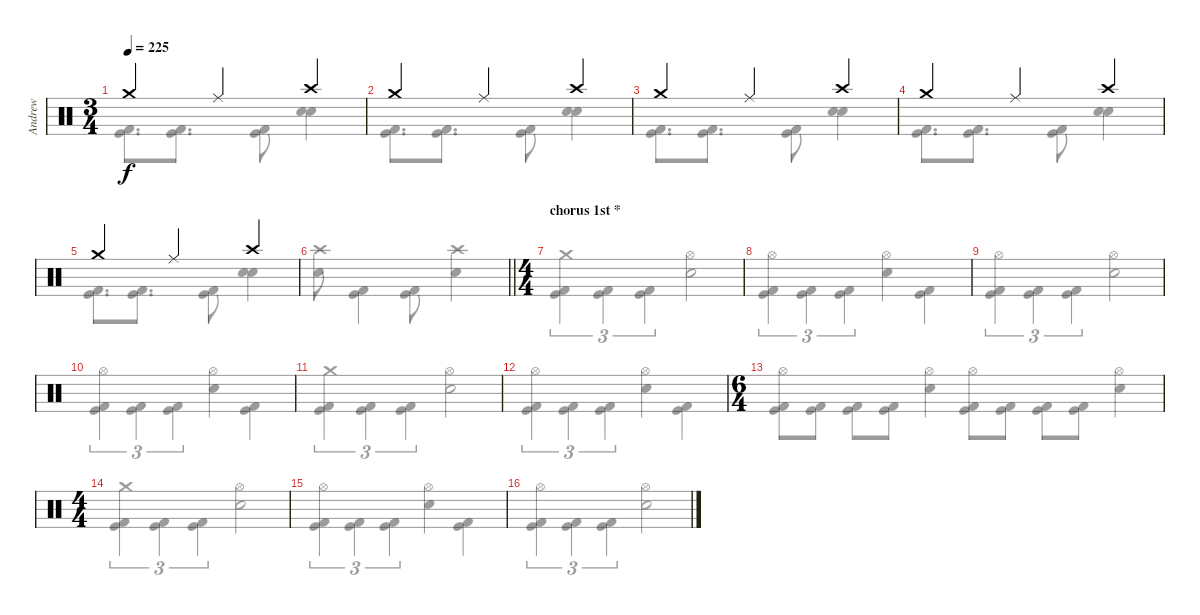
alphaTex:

\track ("Andrew" "Andrew") {instrument percussion}
\staff {score}
\articulation defaults
\voice
\ts (3 4)
\tempo 225
\clef neutral
\ks c "Crash medium (hit)".4{dy f} "Ride (middle)".4 "Crash high (hit)".4
|
"Crash medium (hit)".4 "Ride (middle)".4 "Crash high (hit)".4 |
"Crash medium (hit)".4 "Ride (middle)".4 "Crash high (hit)".4 |
"Crash medium (hit)".4 "Ride (middle)".4 "Crash high (hit)".4 |
"Crash medium (hit)".4 "Ride (middle)".4 "Crash high (hit)".4 |
\barLineRight lightlight
|
\ts (4 4)
\section ("" "chorus 1st *")
|
|
|
|
|
|
\ts (6 4)
|
\ts (4 4)
|
|
\voice
\clef neutral
\ottava regular
\simile none
\ks c
("Kick (hit)" "Kick (hit) 2").8{d dy f} ("Kick (hit)" "Kick (hit) 2").8{d} ("Kick (hit)" "Kick (hit) 2").8 ("Snare (hit) 2" "Snare (hit) 2").4 |
("Kick (hit)" "Kick (hit) 2").8{d} ("Kick (hit)" "Kick (hit) 2").8{d} ("Kick (hit)" "Kick (hit) 2").8 ("Snare (hit) 2" "Snare (hit) 2").4 |
("Kick (hit)" "Kick (hit) 2").8{d} ("Kick (hit)" "Kick (hit) 2").8{d} ("Kick (hit)" "Kick (hit) 2").8 ("Snare (hit) 2" "Snare (hit) 2").4 |
("Kick (hit)" "Kick (hit) 2").8{d} ("Kick (hit)" "Kick (hit) 2").8{d} ("Kick (hit)" "Kick (hit) 2").8 ("Snare (hit) 2" "Snare (hit) 2").4 |
("Kick (hit)" "Kick (hit) 2").8{d} ("Kick (hit)" "Kick (hit) 2").8{d} ("Kick (hit)" "Kick (hit) 2").8 ("Snare (hit) 2" "Snare (hit) 2").4 |
\barLineRight lightlight
("Crash high (hit)" "Snare (hit) 2").8 ("Kick (hit)" "Kick (hit) 2").4 ("Kick (hit)" "Kick (hit) 2").8 ("Crash high (hit)" "Snare (hit) 2").4 |
("Crash medium (hit)" "Kick (hit)" "Kick (hit) 2").4{tu (3 2)} ("Kick (hit)" "Kick (hit) 2").4{tu (3 2)} ("Kick (hit)" "Kick (hit) 2").4{tu (3 2)} ("Hi-Hat (open)" "Electric Snare (hit)").2 |
("Hi-Hat (open)" "Kick (hit)" "Kick (hit) 2").4{tu (3 2)} ("Kick (hit)" "Kick (hit) 2").4{tu (3 2)} ("Kick (hit)" "Kick (hit) 2").4{tu (3 2)} ("Hi-Hat (open)" "Electric Snare (hit)").4 ("Kick (hit)" "Kick (hit) 2").4 |
("Hi-Hat (open)" "Kick (hit)" "Kick (hit) 2").4{tu (3 2)} ("Kick (hit)" "Kick (hit) 2").4{tu (3 2)} ("Kick (hit)" "Kick (hit) 2").4{tu (3 2)} ("Hi-Hat (open)" "Electric Snare (hit)").2 |
("Hi-Hat (open)" "Kick (hit)" "Kick (hit) 2").4{tu (3 2)} ("Kick (hit)" "Kick (hit) 2").4{tu (3 2)} ("Kick (hit)" "Kick (hit) 2").4{tu (3 2)} ("Hi-Hat (open)" "Electric Snare (hit)").4 ("Kick (hit)" "Kick (hit) 2").4 |
("Crash medium (hit)" "Kick (hit)" "Kick (hit) 2").4{tu (3 2)} ("Kick (hit)" "Kick (hit) 2").4{tu (3 2)} ("Kick (hit)" "Kick (hit) 2").4{tu (3 2)} ("Hi-Hat (open)" "Electric Snare (hit)").2 |
("Hi-Hat (open)" "Kick (hit)" "Kick (hit) 2").4{tu (3 2)} ("Kick (hit)" "Kick (hit) 2").4{tu (3 2)} ("Kick (hit)" "Kick (hit) 2").4{tu (3 2)} ("Hi-Hat (open)" "Electric Snare (hit)").4 ("Kick (hit)" "Kick (hit) 2").4 |
("Hi-Hat (open)" "Kick (hit)" "Kick (hit) 2").8 ("Kick (hit)" "Kick (hit) 2").8 ("Kick (hit)" "Kick (hit) 2").8 ("Kick (hit)" "Kick (hit) 2").8 ("Hi-Hat (open)" "Snare (hit) 2").4 ("Hi-Hat (open)" "Kick (hit)" "Kick (hit) 2").8 ("Kick (hit)" "Kick (hit) 2").8 ("Kick (hit)" "Kick (hit) 2").8 ("Kick (hit)" "Kick (hit) 2").8 ("Hi-Hat (open)" "Snare (hit) 2").4 |
("Crash medium (hit)" "Kick (hit)" "Kick (hit) 2").4{tu (3 2)} ("Kick (hit)" "Kick (hit) 2").4{tu (3 2)} ("Kick (hit)" "Kick (hit) 2").4{tu (3 2)} ("Hi-Hat (open)" "Electric Snare (hit)").2 |
("Hi-Hat (open)" "Kick (hit)" "Kick (hit) 2").4{tu (3 2)} ("Kick (hit)" "Kick (hit) 2").4{tu (3 2)} ("Kick (hit)" "Kick (hit) 2").4{tu (3 2)} ("Hi-Hat (open)" "Electric Snare (hit)").4 ("Kick (hit)" "Kick (hit) 2").4 |
("Hi-Hat (open)" "Kick (hit)" "Kick (hit) 2").4{tu (3 2)} ("Kick (hit)" "Kick (hit) 2").4{tu (3 2)} ("Kick (hit)" "Kick (hit) 2").4{tu (3 2)} ("Hi-Hat (open)" "Electric Snare (hit)").2
